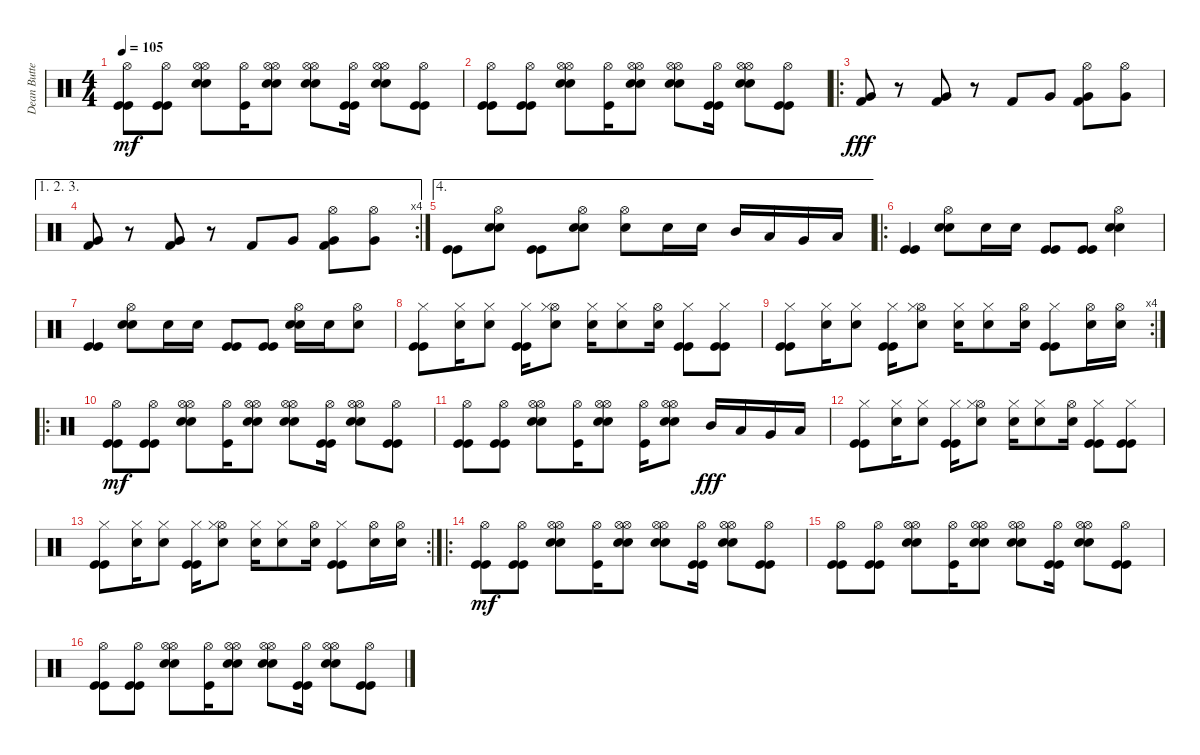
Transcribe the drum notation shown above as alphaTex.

\track ("Dean Butterworth" "Dean Butte") {instrument percussion}
\staff {score}
\articulation defaults
\ts (4 4)
\tempo 105
\clef neutral
\ks c
("Kick (hit)" "Kick (hit)" "Hi-Hat (open)").8{dy mf} ("Kick (hit)" "Kick (hit)" "Hi-Hat (open)").8 ("Electric Snare (hit)" "Snare (hit) 2" "Hi-Hat (open)" "Hi-Hat (open)").8 ("Kick (hit)" "Hi-Hat (open)").16 ("Electric Snare (hit)" "Snare (hit) 2" "Hi-Hat (open)" "Hi-Hat (open)").8 ("Electric Snare (hit)" "Snare (hit) 2" "Hi-Hat (open)" "Hi-Hat (open)").8 ("Kick (hit)" "Kick (hit)" "Hi-Hat (open)").16 ("Electric Snare (hit)" "Snare (hit) 2" "Hi-Hat (open)" "Hi-Hat (open)").8 ("Kick (hit)" "Kick (hit)" "Hi-Hat (open)").8 |
("Kick (hit)" "Kick (hit)" "Hi-Hat (open)").8 ("Kick (hit)" "Kick (hit)" "Hi-Hat (open)").8 ("Electric Snare (hit)" "Snare (hit) 2" "Hi-Hat (open)" "Hi-Hat (open)").8 ("Kick (hit)" "Hi-Hat (open)").16 ("Electric Snare (hit)" "Snare (hit) 2" "Hi-Hat (open)" "Hi-Hat (open)").8 ("Electric Snare (hit)" "Snare (hit) 2" "Hi-Hat (open)" "Hi-Hat (open)").8 ("Kick (hit)" "Kick (hit)" "Hi-Hat (open)").16 ("Electric Snare (hit)" "Snare (hit) 2" "Hi-Hat (open)" "Hi-Hat (open)").8 ("Kick (hit)" "Kick (hit)" "Hi-Hat (open)").8 |
\ro
("Kick (hit) 2" "Very Low Tom (hit)").8{dy fff} r.8 ("Kick (hit) 2" "Very Low Tom (hit)").8 r.8 "Kick (hit) 2".8 "Very Low Tom (hit)".8 ("Kick (hit) 2" "Very Low Tom (hit)" "Hi-Hat (open)").8 ("Very Low Tom (hit)" "Hi-Hat (open)").8 |
\ae (1 2 3)
\rc 4
("Kick (hit) 2" "Very Low Tom (hit)").8 r.8 ("Kick (hit) 2" "Very Low Tom (hit)").8 r.8 "Kick (hit) 2".8 "Very Low Tom (hit)".8 ("Kick (hit) 2" "Very Low Tom (hit)" "Hi-Hat (open)").8 ("Very Low Tom (hit)" "Hi-Hat (open)").8 |
\ae 4
("Kick (hit)" "Kick (hit)").8 ("Electric Snare (hit)" "Snare (hit) 2" "Hi-Hat (open)").8 ("Kick (hit)" "Kick (hit)").8 ("Electric Snare (hit)" "Snare (hit) 2" "Hi-Hat (open)").8 ("Electric Snare (hit)" "Hi-Hat (open)").8 "Snare (hit) 2".16 "Snare (hit) 2".16 "Mid Tom (hit)".16 "Low Tom (hit)".16 "Very Low Tom (hit)".16 "Low Floor Tom (hit)".16 |
\ro
("Kick (hit)" "Kick (hit)").4 ("Electric Snare (hit)" "Snare (hit) 2" "Hi-Hat (open)").8 "Snare (hit) 2".16 "Snare (hit) 2".16 ("Kick (hit)" "Kick (hit)").8 ("Kick (hit)" "Kick (hit)").8 ("Electric Snare (hit)" "Snare (hit) 2" "Hi-Hat (open)").4 |
("Kick (hit)" "Kick (hit)").4 ("Electric Snare (hit)" "Snare (hit) 2" "Hi-Hat (open)").8 "Snare (hit) 2".16 "Snare (hit) 2".16 ("Kick (hit)" "Kick (hit)").8 ("Kick (hit)" "Kick (hit)").8 ("Electric Snare (hit)" "Snare (hit) 2" "Hi-Hat (open)").16 "Snare (hit) 2".16 ("Snare (hit) 2" "Hi-Hat (open)").8 |
("Kick (hit)" "Kick (hit)" "Hi-Hat (closed)").8 ("Electric Snare (hit)" "Hi-Hat (closed)").16 ("Electric Snare (hit)" "Hi-Hat (closed)").8 ("Kick (hit)" "Kick (hit)" "Hi-Hat (closed)").16 ("Snare (hit) 2" "Hi-Hat (open)" "Hi-Hat (closed)").8 ("Electric Snare (hit)" "Hi-Hat (closed)").16 ("Electric Snare (hit)" "Hi-Hat (closed)").8 ("Snare (hit) 2" "Hi-Hat (open)").16 ("Kick (hit)" "Kick (hit)" "Hi-Hat (closed)").8 ("Kick (hit)" "Kick (hit)" "Hi-Hat (closed)").8 |
\rc 4
("Kick (hit)" "Kick (hit)" "Hi-Hat (closed)").8 ("Electric Snare (hit)" "Hi-Hat (closed)").16 ("Electric Snare (hit)" "Hi-Hat (closed)").8 ("Kick (hit)" "Kick (hit)" "Hi-Hat (closed)").16 ("Snare (hit) 2" "Hi-Hat (open)" "Hi-Hat (closed)").8 ("Electric Snare (hit)" "Hi-Hat (closed)").16 ("Electric Snare (hit)" "Hi-Hat (closed)").8 ("Snare (hit) 2" "Hi-Hat (open)").16 ("Kick (hit)" "Kick (hit)" "Hi-Hat (closed)").8 ("Snare (hit) 2" "Hi-Hat (open)").16 ("Snare (hit) 2" "Hi-Hat (open)").16 |
\ro
("Kick (hit)" "Kick (hit)" "Hi-Hat (open)").8{dy mf} ("Kick (hit)" "Kick (hit)" "Hi-Hat (open)").8 ("Electric Snare (hit)" "Snare (hit) 2" "Hi-Hat (open)" "Hi-Hat (open)").8 ("Kick (hit)" "Hi-Hat (open)").16 ("Electric Snare (hit)" "Snare (hit) 2" "Hi-Hat (open)" "Hi-Hat (open)").8 ("Electric Snare (hit)" "Snare (hit) 2" "Hi-Hat (open)" "Hi-Hat (open)").8 ("Kick (hit)" "Kick (hit)" "Hi-Hat (open)").16 ("Electric Snare (hit)" "Snare (hit) 2" "Hi-Hat (open)" "Hi-Hat (open)").8 ("Kick (hit)" "Kick (hit)" "Hi-Hat (open)").8 |
("Kick (hit)" "Kick (hit)" "Hi-Hat (open)").8 ("Kick (hit)" "Kick (hit)" "Hi-Hat (open)").8 ("Electric Snare (hit)" "Snare (hit) 2" "Hi-Hat (open)" "Hi-Hat (open)").8 ("Kick (hit)" "Hi-Hat (open)").16 ("Electric Snare (hit)" "Snare (hit) 2" "Hi-Hat (open)" "Hi-Hat (open)").8 ("Kick (hit)" "Hi-Hat (open)").16 ("Electric Snare (hit)" "Snare (hit) 2" "Hi-Hat (open)" "Hi-Hat (open)").8 "Mid Tom (hit)".16{dy fff} "Low Tom (hit)".16 "Very Low Tom (hit)".16 "Low Floor Tom (hit)".16 |
("Kick (hit)" "Kick (hit)" "Hi-Hat (closed)").8 ("Electric Snare (hit)" "Hi-Hat (closed)").16 ("Electric Snare (hit)" "Hi-Hat (closed)").8 ("Kick (hit)" "Kick (hit)" "Hi-Hat (closed)").16 ("Snare (hit) 2" "Hi-Hat (open)" "Hi-Hat (closed)").8 ("Electric Snare (hit)" "Hi-Hat (closed)").16 ("Electric Snare (hit)" "Hi-Hat (closed)").8 ("Snare (hit) 2" "Hi-Hat (open)").16 ("Kick (hit)" "Kick (hit)" "Hi-Hat (closed)").8 ("Kick (hit)" "Kick (hit)" "Hi-Hat (closed)").8 |
\rc 2
("Kick (hit)" "Kick (hit)" "Hi-Hat (closed)").8 ("Electric Snare (hit)" "Hi-Hat (closed)").16 ("Electric Snare (hit)" "Hi-Hat (closed)").8 ("Kick (hit)" "Kick (hit)" "Hi-Hat (closed)").16 ("Snare (hit) 2" "Hi-Hat (open)" "Hi-Hat (closed)").8 ("Electric Snare (hit)" "Hi-Hat (closed)").16 ("Electric Snare (hit)" "Hi-Hat (closed)").8 ("Snare (hit) 2" "Hi-Hat (open)").16 ("Kick (hit)" "Kick (hit)" "Hi-Hat (closed)").8 ("Snare (hit) 2" "Hi-Hat (open)").16 ("Snare (hit) 2" "Hi-Hat (open)").16 |
\ro
("Kick (hit)" "Kick (hit)" "Hi-Hat (open)").8{dy mf} ("Kick (hit)" "Kick (hit)" "Hi-Hat (open)").8 ("Electric Snare (hit)" "Snare (hit) 2" "Hi-Hat (open)" "Hi-Hat (open)").8 ("Kick (hit)" "Hi-Hat (open)").16 ("Electric Snare (hit)" "Snare (hit) 2" "Hi-Hat (open)" "Hi-Hat (open)").8 ("Electric Snare (hit)" "Snare (hit) 2" "Hi-Hat (open)" "Hi-Hat (open)").8 ("Kick (hit)" "Kick (hit)" "Hi-Hat (open)").16 ("Electric Snare (hit)" "Snare (hit) 2" "Hi-Hat (open)" "Hi-Hat (open)").8 ("Kick (hit)" "Kick (hit)" "Hi-Hat (open)").8 |
("Kick (hit)" "Kick (hit)" "Hi-Hat (open)").8 ("Kick (hit)" "Kick (hit)" "Hi-Hat (open)").8 ("Electric Snare (hit)" "Snare (hit) 2" "Hi-Hat (open)" "Hi-Hat (open)").8 ("Kick (hit)" "Hi-Hat (open)").16 ("Electric Snare (hit)" "Snare (hit) 2" "Hi-Hat (open)" "Hi-Hat (open)").8 ("Electric Snare (hit)" "Snare (hit) 2" "Hi-Hat (open)" "Hi-Hat (open)").8 ("Kick (hit)" "Kick (hit)" "Hi-Hat (open)").16 ("Electric Snare (hit)" "Snare (hit) 2" "Hi-Hat (open)" "Hi-Hat (open)").8 ("Kick (hit)" "Kick (hit)" "Hi-Hat (open)").8 |
("Kick (hit)" "Kick (hit)" "Hi-Hat (open)").8 ("Kick (hit)" "Kick (hit)" "Hi-Hat (open)").8 ("Electric Snare (hit)" "Snare (hit) 2" "Hi-Hat (open)" "Hi-Hat (open)").8 ("Kick (hit)" "Hi-Hat (open)").16 ("Electric Snare (hit)" "Snare (hit) 2" "Hi-Hat (open)" "Hi-Hat (open)").8 ("Electric Snare (hit)" "Snare (hit) 2" "Hi-Hat (open)" "Hi-Hat (open)").8 ("Kick (hit)" "Kick (hit)" "Hi-Hat (open)").16 ("Electric Snare (hit)" "Snare (hit) 2" "Hi-Hat (open)" "Hi-Hat (open)").8 ("Kick (hit)" "Kick (hit)" "Hi-Hat (open)").8
